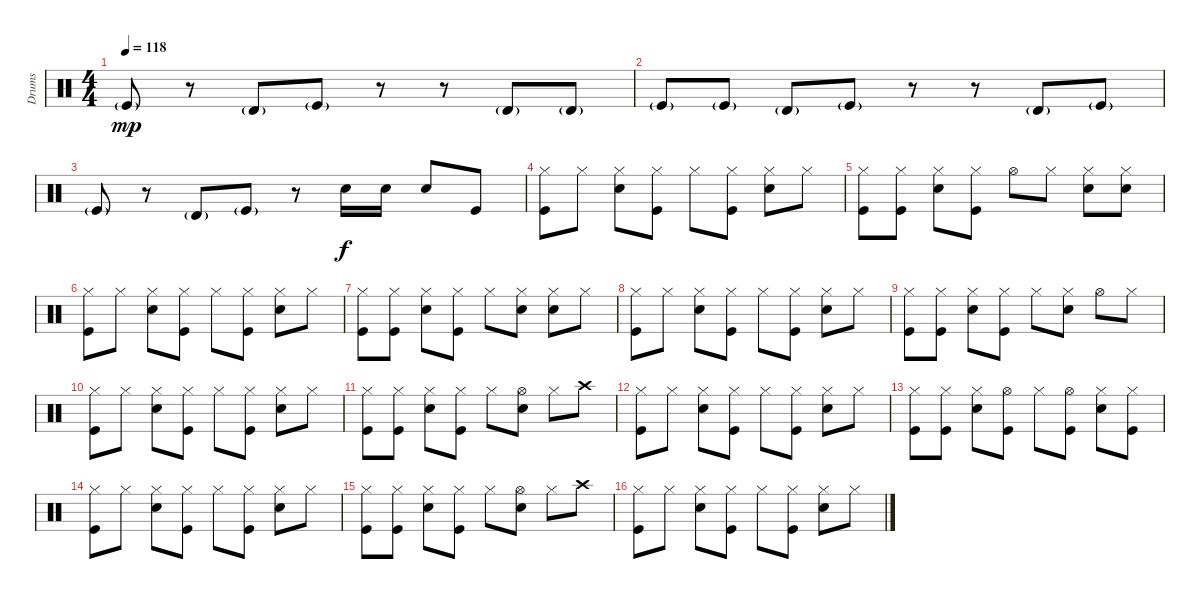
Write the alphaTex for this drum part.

\track ("Drums" "Drums") {instrument percussion}
\staff {score}
\articulation defaults
\ts (4 4)
\tempo 118
\clef neutral
\ks c "Kick (hit)"{g}.8{dy mp}
r.8 "Timbale high (hit)"{g}.8 "Kick (hit)"{g}.8 r.8 r.8 "Timbale high (hit)"{g}.8 "Timbale high (hit)"{g}.8 |
"Kick (hit)"{g}.8 "Kick (hit)"{g}.8 "Timbale high (hit)"{g}.8 "Kick (hit)"{g}.8 r.8 r.8 "Timbale high (hit)"{g}.8 "Kick (hit)"{g}.8 |
"Kick (hit)"{g}.8 r.8 "Timbale high (hit)"{g}.8 "Kick (hit)"{g}.8 r.8 "Snare (hit) 2".16{dy f} "Snare (hit) 2".16 "Snare (hit) 2".8 "Kick (hit)".8 |
("Hi-Hat (closed)" "Kick (hit)").8 "Hi-Hat (closed)".8 ("Hi-Hat (closed)" "Snare (hit) 2").8 ("Hi-Hat (closed)" "Kick (hit)").8 "Hi-Hat (closed)".8 ("Hi-Hat (closed)" "Kick (hit)").8 ("Hi-Hat (closed)" "Snare (hit) 2").8 "Hi-Hat (closed)".8 |
("Hi-Hat (closed)" "Kick (hit)").8 ("Hi-Hat (closed)" "Kick (hit)").8 ("Hi-Hat (closed)" "Snare (hit) 2").8 ("Hi-Hat (closed)" "Kick (hit)").8 "Hi-Hat (open)".8 "Hi-Hat (closed)".8 ("Hi-Hat (closed)" "Snare (hit) 2").8 ("Hi-Hat (closed)" "Snare (hit) 2").8 |
("Hi-Hat (closed)" "Kick (hit)").8 "Hi-Hat (closed)".8 ("Hi-Hat (closed)" "Snare (hit) 2").8 ("Hi-Hat (closed)" "Kick (hit)").8 "Hi-Hat (closed)".8 ("Hi-Hat (closed)" "Kick (hit)").8 ("Hi-Hat (closed)" "Snare (hit) 2").8 "Hi-Hat (closed)".8 |
("Hi-Hat (closed)" "Kick (hit)").8 ("Hi-Hat (closed)" "Kick (hit)").8 ("Hi-Hat (closed)" "Snare (hit) 2").8 ("Hi-Hat (closed)" "Kick (hit)").8 "Hi-Hat (closed)".8 ("Hi-Hat (closed)" "Snare (hit) 2").8 ("Hi-Hat (closed)" "Snare (hit) 2").8 "Hi-Hat (closed)".8 |
("Hi-Hat (closed)" "Kick (hit)").8 "Hi-Hat (closed)".8 ("Hi-Hat (closed)" "Snare (hit) 2").8 ("Hi-Hat (closed)" "Kick (hit)").8 "Hi-Hat (closed)".8 ("Hi-Hat (closed)" "Kick (hit)").8 ("Hi-Hat (closed)" "Snare (hit) 2").8 "Hi-Hat (closed)".8 |
("Hi-Hat (closed)" "Kick (hit)").8 ("Hi-Hat (closed)" "Kick (hit)").8 ("Hi-Hat (closed)" "Snare (hit) 2").8 ("Hi-Hat (closed)" "Kick (hit)").8 "Hi-Hat (closed)".8 ("Hi-Hat (closed)" "Snare (hit) 2").8 "Hi-Hat (open)".8 "Hi-Hat (closed)".8 |
("Hi-Hat (closed)" "Kick (hit)").8 "Hi-Hat (closed)".8 ("Hi-Hat (closed)" "Snare (hit) 2").8 ("Hi-Hat (closed)" "Kick (hit)").8 "Hi-Hat (closed)".8 ("Hi-Hat (closed)" "Kick (hit)").8 ("Hi-Hat (closed)" "Snare (hit) 2").8 "Hi-Hat (closed)".8 |
("Hi-Hat (closed)" "Kick (hit)").8 ("Hi-Hat (closed)" "Kick (hit)").8 ("Hi-Hat (closed)" "Snare (hit) 2").8 ("Hi-Hat (closed)" "Kick (hit)").8 "Hi-Hat (closed)".8 ("Hi-Hat (open)" "Snare (hit) 2").8 "Hi-Hat (closed)".8 "Crash high (hit)".8 |
("Hi-Hat (closed)" "Kick (hit)").8 "Hi-Hat (closed)".8 ("Hi-Hat (closed)" "Snare (hit) 2").8 ("Hi-Hat (closed)" "Kick (hit)").8 "Hi-Hat (closed)".8 ("Hi-Hat (closed)" "Kick (hit)").8 ("Hi-Hat (closed)" "Snare (hit) 2").8 "Hi-Hat (closed)".8 |
("Hi-Hat (closed)" "Kick (hit)").8 ("Hi-Hat (closed)" "Kick (hit)").8 ("Hi-Hat (closed)" "Snare (hit) 2").8 ("Hi-Hat (open)" "Kick (hit)").8 "Hi-Hat (closed)".8 ("Hi-Hat (open)" "Kick (hit)").8 ("Hi-Hat (closed)" "Snare (hit) 2").8 ("Hi-Hat (closed)" "Kick (hit)").8 |
("Hi-Hat (closed)" "Kick (hit)").8 "Hi-Hat (closed)".8 ("Hi-Hat (closed)" "Snare (hit) 2").8 ("Hi-Hat (closed)" "Kick (hit)").8 "Hi-Hat (closed)".8 ("Hi-Hat (closed)" "Kick (hit)").8 ("Hi-Hat (closed)" "Snare (hit) 2").8 "Hi-Hat (closed)".8 |
("Hi-Hat (closed)" "Kick (hit)").8 ("Hi-Hat (closed)" "Kick (hit)").8 ("Hi-Hat (closed)" "Snare (hit) 2").8 ("Hi-Hat (closed)" "Kick (hit)").8 "Hi-Hat (closed)".8 ("Hi-Hat (open)" "Snare (hit) 2").8 "Hi-Hat (closed)".8 "Crash high (hit)".8 |
("Hi-Hat (closed)" "Kick (hit)").8 "Hi-Hat (closed)".8 ("Hi-Hat (closed)" "Snare (hit) 2").8 ("Hi-Hat (closed)" "Kick (hit)").8 "Hi-Hat (closed)".8 ("Hi-Hat (closed)" "Kick (hit)").8 ("Hi-Hat (closed)" "Snare (hit) 2").8 "Hi-Hat (closed)".8
